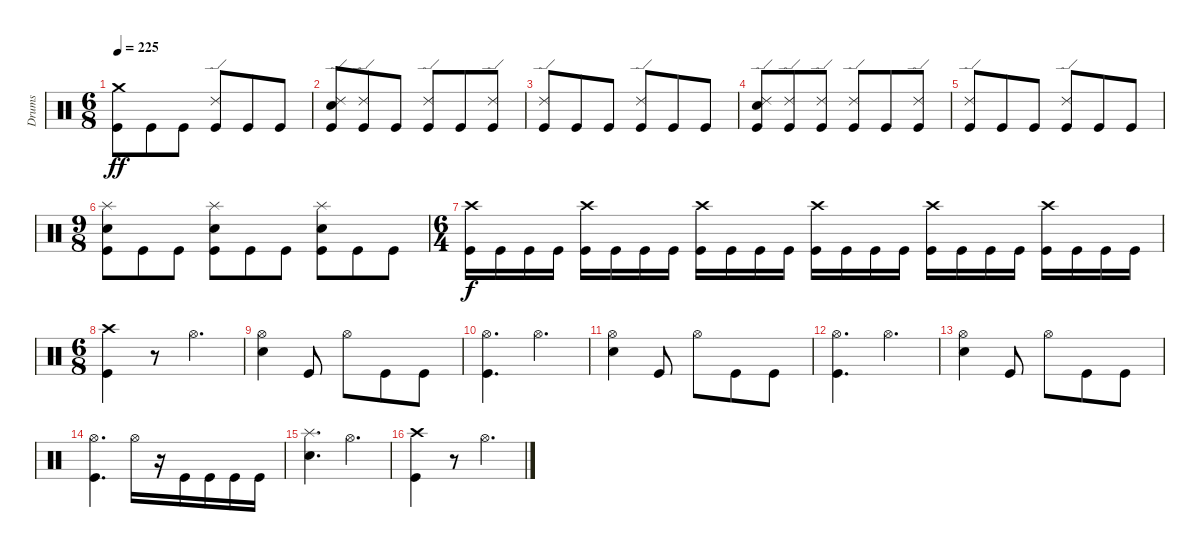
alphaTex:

\track ("Drums" "Drums") {instrument percussion}
\staff {score}
\articulation defaults
\ts (6 8)
\tempo 225
\clef neutral
\ks c
("Kick (hit)" "Crash medium (hit)").8{dy ff} "Kick (hit)".8 "Kick (hit)".8 ("Kick (hit)" "Ride (edge) 2").8 "Kick (hit)".8 "Kick (hit)".8 |
("Kick (hit)" "Snare (hit) 2" "Ride (edge) 2").8 ("Kick (hit)" "Ride (edge) 2").8 "Kick (hit)".8 ("Kick (hit)" "Ride (edge) 2").8 "Kick (hit)".8 ("Kick (hit)" "Ride (edge) 2").8 |
("Kick (hit)" "Ride (edge) 2").8 "Kick (hit)".8 "Kick (hit)".8 ("Kick (hit)" "Ride (edge) 2").8 "Kick (hit)".8 "Kick (hit)".8 |
("Kick (hit)" "Snare (hit) 2" "Ride (edge) 2").8 ("Kick (hit)" "Ride (edge) 2").8 ("Kick (hit)" "Ride (edge) 2").8 ("Kick (hit)" "Ride (edge) 2").8 "Kick (hit)".8 ("Kick (hit)" "Ride (edge) 2").8 |
("Kick (hit)" "Ride (edge) 2").8 "Kick (hit)".8 "Kick (hit)".8 ("Kick (hit)" "Ride (edge) 2").8 "Kick (hit)".8 "Kick (hit)".8 |
\ts (9 8)
("Kick (hit)" "Snare (hit) 2" "Splash (hit)").8 "Kick (hit)".8 "Kick (hit)".8 ("Kick (hit)" "Snare (hit) 2" "Splash (hit)").8 "Kick (hit)".8 "Kick (hit)".8 ("Kick (hit)" "Snare (hit) 2" "Splash (hit)").8 "Kick (hit)".8 "Kick (hit)".8 |
\ts (6 4)
("Kick (hit)" "Crash high (hit)").16{dy f} "Kick (hit)".16 "Kick (hit)".16 "Kick (hit)".16 ("Kick (hit)" "Crash high (hit)").16 "Kick (hit)".16 "Kick (hit)".16 "Kick (hit)".16 ("Kick (hit)" "Crash high (hit)").16 "Kick (hit)".16 "Kick (hit)".16 "Kick (hit)".16 ("Kick (hit)" "Crash high (hit)").16 "Kick (hit)".16 "Kick (hit)".16 "Kick (hit)".16 ("Kick (hit)" "Crash high (hit)").16 "Kick (hit)".16 "Kick (hit)".16 "Kick (hit)".16 ("Kick (hit)" "Crash high (hit)").16 "Kick (hit)".16 "Kick (hit)".16 "Kick (hit)".16 |
\ts (6 8)
("Kick (hit)" "Crash high (hit)").4 r.8 "Hi-Hat (open)".4{d} |
("Snare (hit) 2" "Hi-Hat (open)").4 "Kick (hit)".8 "Hi-Hat (open)".8 "Kick (hit)".8 "Kick (hit)".8 |
("Kick (hit)" "Hi-Hat (open)").4{d} "Hi-Hat (open)".4{d} |
("Snare (hit) 2" "Hi-Hat (open)").4 "Kick (hit)".8 "Hi-Hat (open)".8 "Kick (hit)".8 "Kick (hit)".8 |
("Kick (hit)" "Hi-Hat (open)").4{d} "Hi-Hat (open)".4{d} |
("Snare (hit) 2" "Hi-Hat (open)").4 "Kick (hit)".8 "Hi-Hat (open)".8 "Kick (hit)".8 "Kick (hit)".8 |
("Kick (hit)" "Hi-Hat (open)").4{d} "Hi-Hat (open)".16 r.16 "Kick (hit)".16 "Kick (hit)".16 "Kick (hit)".16 "Kick (hit)".16 |
("Snare (hit) 2" "Splash (hit)").4{d} "Hi-Hat (open)".4{d} |
("Kick (hit)" "Crash high (hit)").4 r.8 "Hi-Hat (open)".4{d}
